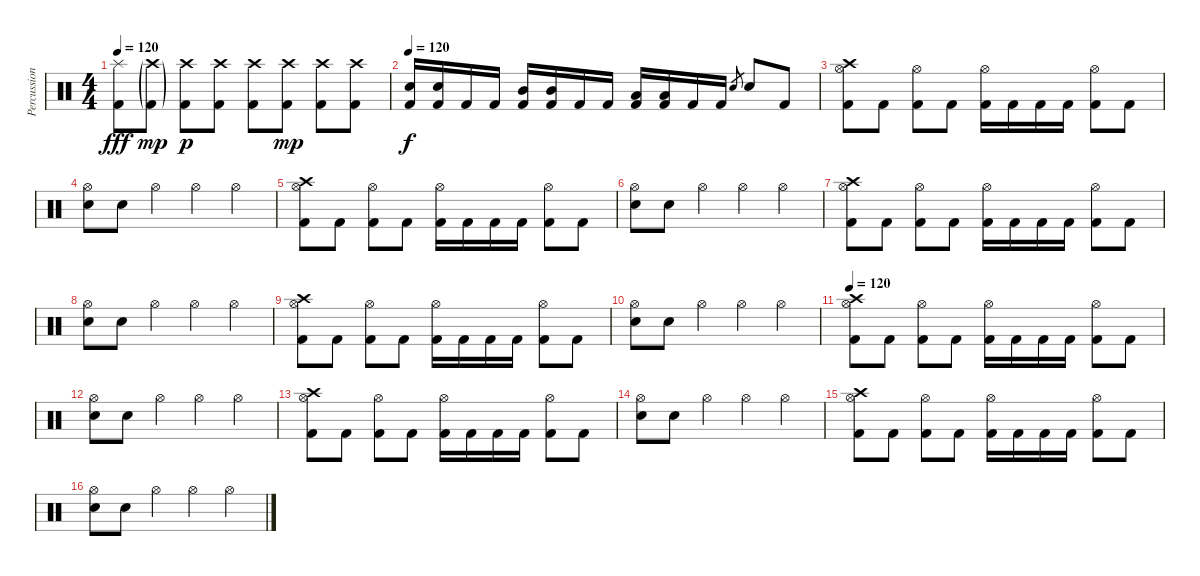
\track ("Percussion" "Percussion") {instrument percussion}
\staff {score}
\articulation defaults
\ts (4 4)
\tempo 120
\clef neutral
\ks c
("Splash (hit)" "Kick (hit) 2").8{dy fff} ("Crash high (hit)"{g} "Kick (hit) 2"{g}).8{dy mp} ("Crash high (hit)" "Kick (hit) 2").8{dy p} ("Crash high (hit)" "Kick (hit) 2").8 ("Crash high (hit)" "Kick (hit) 2").8 ("Crash high (hit)" "Kick (hit) 2").8{dy mp} ("Crash high (hit)" "Kick (hit) 2").8 ("Crash high (hit)" "Kick (hit) 2").8 |
\tempo 120
("Electric Snare (hit)" "Kick (hit) 2").16{dy f} ("Electric Snare (hit)" "Kick (hit) 2").16 "Kick (hit) 2".16 "Kick (hit) 2".16 ("Mid Tom (hit)" "Kick (hit) 2").16 ("Mid Tom (hit)" "Kick (hit) 2").16 "Kick (hit) 2".16 "Kick (hit) 2".16 ("Low Tom (hit)" "Kick (hit) 2").16 ("Low Tom (hit)" "Kick (hit) 2").16 "Kick (hit) 2".16 "Kick (hit) 2".16 "Electric Snare (hit)".8{gr} "Electric Snare (hit)".8 "Kick (hit) 2".8 |
("Crash high (hit)" "Hi-Hat (open)" "Kick (hit) 2").8 "Kick (hit) 2".8 ("Hi-Hat (open)" "Kick (hit) 2").8 "Kick (hit) 2".8 ("Hi-Hat (open)" "Kick (hit) 2").16 "Kick (hit) 2".16 "Kick (hit) 2".16 "Kick (hit) 2".16 ("Hi-Hat (open)" "Kick (hit) 2").8 "Kick (hit) 2".8 |
("Hi-Hat (open)" "Electric Snare (hit)").8 "Electric Snare (hit)".8 "Hi-Hat (open)".4 "Hi-Hat (open)".4 "Hi-Hat (open)".4 |
("Crash high (hit)" "Hi-Hat (open)" "Kick (hit) 2").8 "Kick (hit) 2".8 ("Hi-Hat (open)" "Kick (hit) 2").8 "Kick (hit) 2".8 ("Hi-Hat (open)" "Kick (hit) 2").16 "Kick (hit) 2".16 "Kick (hit) 2".16 "Kick (hit) 2".16 ("Hi-Hat (open)" "Kick (hit) 2").8 "Kick (hit) 2".8 |
("Hi-Hat (open)" "Electric Snare (hit)").8 "Electric Snare (hit)".8 "Hi-Hat (open)".4 "Hi-Hat (open)".4 "Hi-Hat (open)".4 |
("Crash high (hit)" "Hi-Hat (open)" "Kick (hit) 2").8 "Kick (hit) 2".8 ("Hi-Hat (open)" "Kick (hit) 2").8 "Kick (hit) 2".8 ("Hi-Hat (open)" "Kick (hit) 2").16 "Kick (hit) 2".16 "Kick (hit) 2".16 "Kick (hit) 2".16 ("Hi-Hat (open)" "Kick (hit) 2").8 "Kick (hit) 2".8 |
("Hi-Hat (open)" "Electric Snare (hit)").8 "Electric Snare (hit)".8 "Hi-Hat (open)".4 "Hi-Hat (open)".4 "Hi-Hat (open)".4 |
("Crash high (hit)" "Hi-Hat (open)" "Kick (hit) 2").8 "Kick (hit) 2".8 ("Hi-Hat (open)" "Kick (hit) 2").8 "Kick (hit) 2".8 ("Hi-Hat (open)" "Kick (hit) 2").16 "Kick (hit) 2".16 "Kick (hit) 2".16 "Kick (hit) 2".16 ("Hi-Hat (open)" "Kick (hit) 2").8 "Kick (hit) 2".8 |
("Hi-Hat (open)" "Electric Snare (hit)").8 "Electric Snare (hit)".8 "Hi-Hat (open)".4 "Hi-Hat (open)".4 "Hi-Hat (open)".4 |
\tempo 120
("Crash high (hit)" "Hi-Hat (open)" "Kick (hit) 2").8 "Kick (hit) 2".8 ("Hi-Hat (open)" "Kick (hit) 2").8 "Kick (hit) 2".8 ("Hi-Hat (open)" "Kick (hit) 2").16 "Kick (hit) 2".16 "Kick (hit) 2".16 "Kick (hit) 2".16 ("Hi-Hat (open)" "Kick (hit) 2").8 "Kick (hit) 2".8 |
("Hi-Hat (open)" "Electric Snare (hit)").8 "Electric Snare (hit)".8 "Hi-Hat (open)".4 "Hi-Hat (open)".4 "Hi-Hat (open)".4 |
("Crash high (hit)" "Hi-Hat (open)" "Kick (hit) 2").8 "Kick (hit) 2".8 ("Hi-Hat (open)" "Kick (hit) 2").8 "Kick (hit) 2".8 ("Hi-Hat (open)" "Kick (hit) 2").16 "Kick (hit) 2".16 "Kick (hit) 2".16 "Kick (hit) 2".16 ("Hi-Hat (open)" "Kick (hit) 2").8 "Kick (hit) 2".8 |
("Hi-Hat (open)" "Electric Snare (hit)").8 "Electric Snare (hit)".8 "Hi-Hat (open)".4 "Hi-Hat (open)".4 "Hi-Hat (open)".4 |
("Crash high (hit)" "Hi-Hat (open)" "Kick (hit) 2").8 "Kick (hit) 2".8 ("Hi-Hat (open)" "Kick (hit) 2").8 "Kick (hit) 2".8 ("Hi-Hat (open)" "Kick (hit) 2").16 "Kick (hit) 2".16 "Kick (hit) 2".16 "Kick (hit) 2".16 ("Hi-Hat (open)" "Kick (hit) 2").8 "Kick (hit) 2".8 |
("Hi-Hat (open)" "Electric Snare (hit)").8 "Electric Snare (hit)".8 "Hi-Hat (open)".4 "Hi-Hat (open)".4 "Hi-Hat (open)".4
